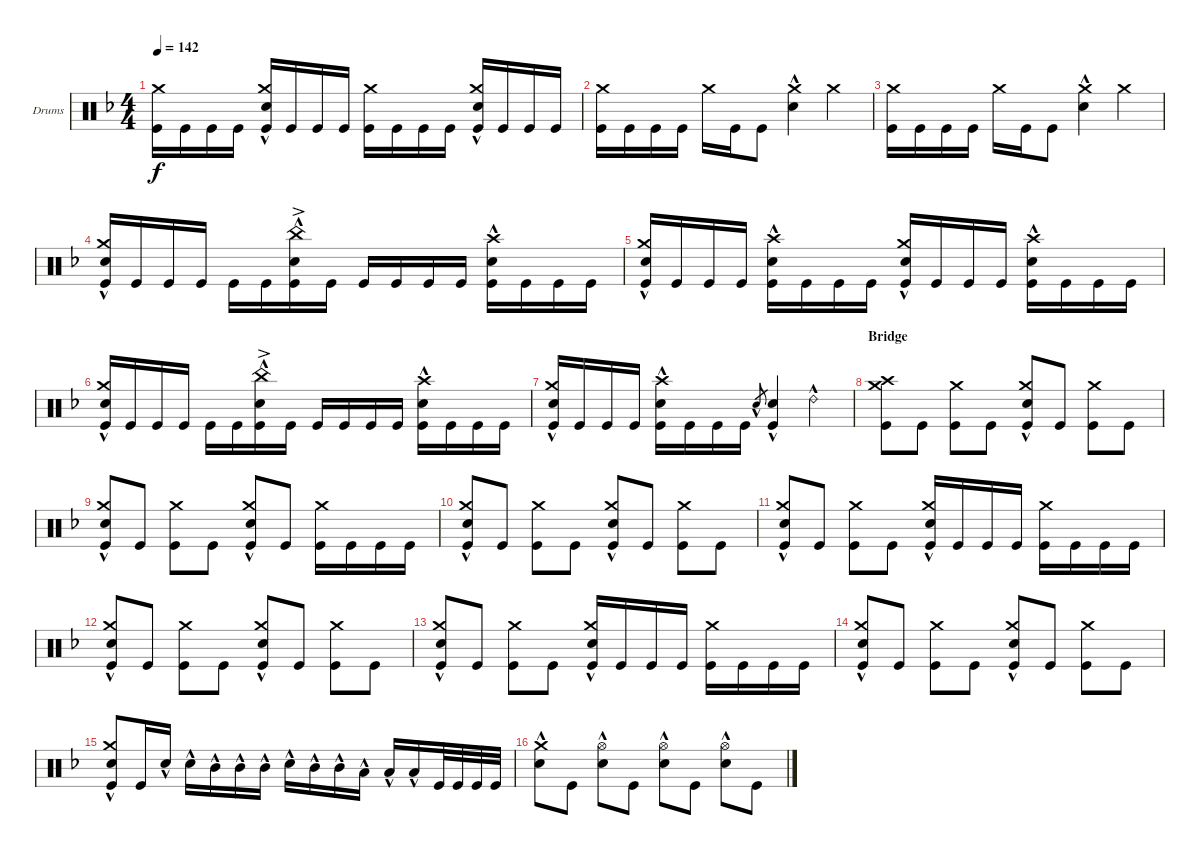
\bracketExtendMode groupsimilarinstruments
\firstSystemTrackNameOrientation horizontal
\otherSystemsTrackNameOrientation horizontal
\track ("Drumkit" "Drums") {instrument percussion}
\staff {score}
\articulation defaults
\ts (4 4)
\tempo 142
\clef neutral
\scale
0.333333
\ks dminor
("Kick (hit)" "Crash medium (hit)").16{dy f} "Kick (hit)".16 "Kick (hit)".16 "Kick (hit)".16 ("Kick (hit)" "Crash medium (hit)" "Snare (hit) 2"{hac}).16 "Kick (hit)".16 "Kick (hit)".16 "Kick (hit)".16 ("Kick (hit)" "Crash medium (hit)").16 "Kick (hit)".16 "Kick (hit)".16 "Kick (hit)".16 ("Kick (hit)" "Crash medium (hit)" "Snare (hit) 2"{hac}).16 "Kick (hit)".16 "Kick (hit)".16 "Kick (hit)".16 |
\scale
0.333333 ("Kick (hit)" "Crash medium (hit)").16 "Kick (hit)".16 "Kick (hit)".16 "Kick (hit)".16 "Crash medium (hit)".16 "Kick (hit)".16 "Kick (hit)".8 ("Snare (hit) 2"{hac} "Crash medium (hit)").4 "Crash medium (hit)".4 |
\scale
0.333333 ("Kick (hit)" "Crash medium (hit)").16 "Kick (hit)".16 "Kick (hit)".16 "Kick (hit)".16 "Crash medium (hit)".16 "Kick (hit)".16 "Kick (hit)".8 ("Snare (hit) 2"{hac} "Crash medium (hit)").4 "Crash medium (hit)".4 |
\scale
0.333333 ("Kick (hit)" "Snare (hit) 2"{hac} "Crash medium (hit)").16 "Kick (hit)".16 "Kick (hit)".16 "Kick (hit)".16 "Kick (hit)".16 "Kick (hit)".16 ("Kick (hit)" "Snare (hit) 2"{hac} "China (hit)"{ac}).16 "Kick (hit)".16 "Kick (hit)".16 "Kick (hit)".16 "Kick (hit)".16 "Kick (hit)".16 ("Kick (hit)" "Snare (hit) 2"{hac} "Crash high (hit)").16 "Kick (hit)".16 "Kick (hit)".16 "Kick (hit)".16 |
\scale
0.333333 ("Kick (hit)" "Snare (hit) 2"{hac} "Crash medium (hit)").16 "Kick (hit)".16 "Kick (hit)".16 "Kick (hit)".16 ("Kick (hit)" "Snare (hit) 2"{hac} "Crash high (hit)").16 "Kick (hit)".16 "Kick (hit)".16 "Kick (hit)".16 ("Kick (hit)" "Snare (hit) 2"{hac} "Crash medium (hit)").16 "Kick (hit)".16 "Kick (hit)".16 "Kick (hit)".16 ("Kick (hit)" "Snare (hit) 2"{hac} "Crash high (hit)").16 "Kick (hit)".16 "Kick (hit)".16 "Kick (hit)".16 |
\scale
0.333333 ("Kick (hit)" "Snare (hit) 2"{hac} "Crash medium (hit)").16 "Kick (hit)".16 "Kick (hit)".16 "Kick (hit)".16 "Kick (hit)".16 "Kick (hit)".16 ("Kick (hit)" "Snare (hit) 2"{hac} "China (hit)"{ac}).16 "Kick (hit)".16 "Kick (hit)".16 "Kick (hit)".16 "Kick (hit)".16 "Kick (hit)".16 ("Kick (hit)" "Snare (hit) 2"{hac} "Crash high (hit)").16 "Kick (hit)".16 "Kick (hit)".16 "Kick (hit)".16 |
\scale
0.333333 ("Kick (hit)" "Snare (hit) 2"{hac} "Crash medium (hit)").16 "Kick (hit)".16 "Kick (hit)".16 "Kick (hit)".16 ("Kick (hit)" "Snare (hit) 2"{hac} "Crash high (hit)").16 "Kick (hit)".16 "Kick (hit)".16 "Kick (hit)".16 "Snare (hit) 2"{hac}.8{gr} ("Kick (hit)" "Snare (hit) 2"{hac}).4 "Ride (bell) 2"{hac}.4 |
\section ("" "Bridge")
\scale
0.333333 ("Kick (hit)" "Crash medium (hit)" "Crash high (hit)").8 "Kick (hit)".8 ("Kick (hit)" "Crash medium (hit)").8 "Kick (hit)".8 ("Kick (hit)" "Crash medium (hit)" "Snare (hit) 2"{hac}).8 "Kick (hit)".8 ("Kick (hit)" "Crash medium (hit)").8 "Kick (hit)".8 |
\scale
0.333333 ("Kick (hit)" "Crash medium (hit)" "Snare (hit) 2"{hac}).8 "Kick (hit)".8 ("Kick (hit)" "Crash medium (hit)").8 "Kick (hit)".8 ("Kick (hit)" "Crash medium (hit)" "Snare (hit) 2"{hac}).8 "Kick (hit)".8 ("Kick (hit)" "Crash medium (hit)").16 "Kick (hit)".16 "Kick (hit)".16 "Kick (hit)".16 |
\scale
0.333333 ("Kick (hit)" "Crash medium (hit)" "Snare (hit) 2"{hac}).8 "Kick (hit)".8 ("Kick (hit)" "Crash medium (hit)").8 "Kick (hit)".8 ("Kick (hit)" "Crash medium (hit)" "Snare (hit) 2"{hac}).8 "Kick (hit)".8 ("Kick (hit)" "Crash medium (hit)").8 "Kick (hit)".8 |
\scale
0.333333 ("Kick (hit)" "Crash medium (hit)" "Snare (hit) 2"{hac}).8 "Kick (hit)".8 ("Kick (hit)" "Crash medium (hit)").8 "Kick (hit)".8 ("Kick (hit)" "Crash medium (hit)" "Snare (hit) 2"{hac}).16 "Kick (hit)".16 "Kick (hit)".16 "Kick (hit)".16 ("Kick (hit)" "Crash medium (hit)").16 "Kick (hit)".16 "Kick (hit)".16 "Kick (hit)".16 |
\scale
0.333333 ("Kick (hit)" "Crash medium (hit)" "Snare (hit) 2"{hac}).8 "Kick (hit)".8 ("Kick (hit)" "Crash medium (hit)").8 "Kick (hit)".8 ("Kick (hit)" "Crash medium (hit)" "Snare (hit) 2"{hac}).8 "Kick (hit)".8 ("Kick (hit)" "Crash medium (hit)").8 "Kick (hit)".8 |
\scale
0.333333 ("Kick (hit)" "Crash medium (hit)" "Snare (hit) 2"{hac}).8 "Kick (hit)".8 ("Kick (hit)" "Crash medium (hit)").8 "Kick (hit)".8 ("Kick (hit)" "Crash medium (hit)" "Snare (hit) 2"{hac}).16 "Kick (hit)".16 "Kick (hit)".16 "Kick (hit)".16 ("Kick (hit)" "Crash medium (hit)").16 "Kick (hit)".16 "Kick (hit)".16 "Kick (hit)".16 |
\scale
0.333333 ("Kick (hit)" "Crash medium (hit)" "Snare (hit) 2"{hac}).8 "Kick (hit)".8 ("Kick (hit)" "Crash medium (hit)").8 "Kick (hit)".8 ("Kick (hit)" "Crash medium (hit)" "Snare (hit) 2"{hac}).8 "Kick (hit)".8 ("Kick (hit)" "Crash medium (hit)").8 "Kick (hit)".8 |
\scale
0.333333 ("Snare (hit) 2"{hac} "Crash medium (hit)" "Kick (hit)").8 "Kick (hit)".16 "Snare (hit) 2"{hac}.16 "Snare (hit) 2"{hac}.16 "Mid Tom (hit)"{hac}.16 "Mid Tom (hit)"{hac}.16 "Mid Tom (hit)"{hac}.16 "Snare (hit) 2"{hac}.16 "Mid Tom (hit)"{hac}.16 "Mid Tom (hit)"{hac}.16 "Low Tom (hit)"{hac}.16 "Low Tom (hit)"{hac}.16 "Low Tom (hit)"{hac}.16 "Kick (hit)".32 "Kick (hit)".32 "Kick (hit)".32 "Kick (hit)".32 |
\scale
0.333333 ("Snare (hit) 2"{hac} "Crash medium (hit)").8 "Kick (hit)".8 ("Snare (hit) 2"{hac} "Hi-Hat (open)").8 "Kick (hit)".8 ("Snare (hit) 2"{hac} "Hi-Hat (open)").8 "Kick (hit)".8 ("Snare (hit) 2"{hac} "Hi-Hat (open)").8 "Kick (hit)".8
